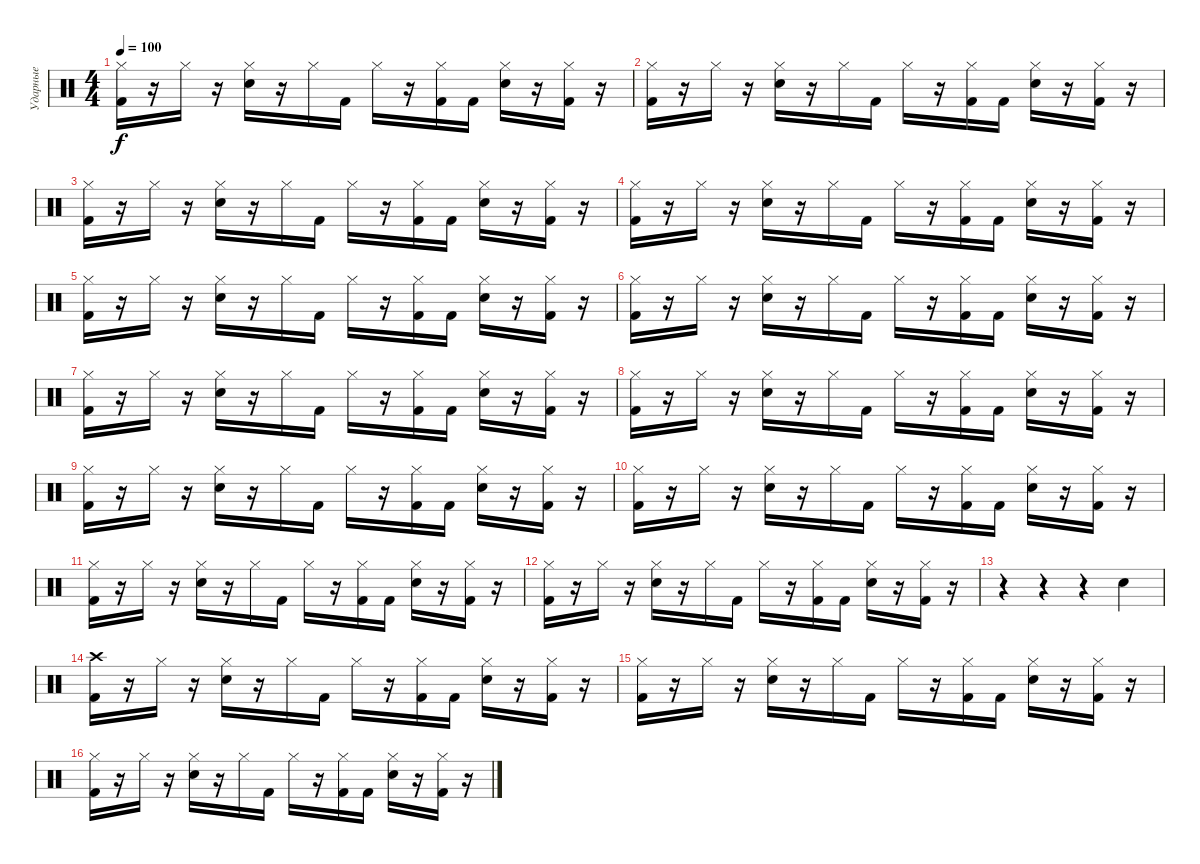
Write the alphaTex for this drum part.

\track ("Ударные" "Ударные") {instrument percussion}
\staff {score}
\articulation defaults
\ts (4 4)
\tempo 100
\clef neutral
\ks c
("Kick (hit) 2" "Hi-Hat (closed)").16{dy f} r.16 "Hi-Hat (closed)".16 r.16 ("Electric Snare (hit)" "Hi-Hat (closed)").16 r.16 "Hi-Hat (closed)".16 "Kick (hit) 2".16 "Hi-Hat (closed)".16 r.16 ("Kick (hit) 2" "Hi-Hat (closed)").16 "Kick (hit) 2".16 ("Electric Snare (hit)" "Hi-Hat (closed)").16 r.16 ("Kick (hit) 2" "Hi-Hat (closed)").16 r.16 |
("Kick (hit) 2" "Hi-Hat (closed)").16 r.16 "Hi-Hat (closed)".16 r.16 ("Electric Snare (hit)" "Hi-Hat (closed)").16 r.16 "Hi-Hat (closed)".16 "Kick (hit) 2".16 "Hi-Hat (closed)".16 r.16 ("Kick (hit) 2" "Hi-Hat (closed)").16 "Kick (hit) 2".16 ("Electric Snare (hit)" "Hi-Hat (closed)").16 r.16 ("Kick (hit) 2" "Hi-Hat (closed)").16 r.16 |
("Kick (hit) 2" "Hi-Hat (closed)").16 r.16 "Hi-Hat (closed)".16 r.16 ("Electric Snare (hit)" "Hi-Hat (closed)").16 r.16 "Hi-Hat (closed)".16 "Kick (hit) 2".16 "Hi-Hat (closed)".16 r.16 ("Kick (hit) 2" "Hi-Hat (closed)").16 "Kick (hit) 2".16 ("Electric Snare (hit)" "Hi-Hat (closed)").16 r.16 ("Kick (hit) 2" "Hi-Hat (closed)").16 r.16 |
("Kick (hit) 2" "Hi-Hat (closed)").16 r.16 "Hi-Hat (closed)".16 r.16 ("Electric Snare (hit)" "Hi-Hat (closed)").16 r.16 "Hi-Hat (closed)".16 "Kick (hit) 2".16 "Hi-Hat (closed)".16 r.16 ("Kick (hit) 2" "Hi-Hat (closed)").16 "Kick (hit) 2".16 ("Electric Snare (hit)" "Hi-Hat (closed)").16 r.16 ("Kick (hit) 2" "Hi-Hat (closed)").16 r.16 |
("Kick (hit) 2" "Hi-Hat (closed)").16 r.16 "Hi-Hat (closed)".16 r.16 ("Electric Snare (hit)" "Hi-Hat (closed)").16 r.16 "Hi-Hat (closed)".16 "Kick (hit) 2".16 "Hi-Hat (closed)".16 r.16 ("Kick (hit) 2" "Hi-Hat (closed)").16 "Kick (hit) 2".16 ("Electric Snare (hit)" "Hi-Hat (closed)").16 r.16 ("Kick (hit) 2" "Hi-Hat (closed)").16 r.16 |
("Kick (hit) 2" "Hi-Hat (closed)").16 r.16 "Hi-Hat (closed)".16 r.16 ("Electric Snare (hit)" "Hi-Hat (closed)").16 r.16 "Hi-Hat (closed)".16 "Kick (hit) 2".16 "Hi-Hat (closed)".16 r.16 ("Kick (hit) 2" "Hi-Hat (closed)").16 "Kick (hit) 2".16 ("Electric Snare (hit)" "Hi-Hat (closed)").16 r.16 ("Kick (hit) 2" "Hi-Hat (closed)").16 r.16 |
("Kick (hit) 2" "Hi-Hat (closed)").16 r.16 "Hi-Hat (closed)".16 r.16 ("Electric Snare (hit)" "Hi-Hat (closed)").16 r.16 "Hi-Hat (closed)".16 "Kick (hit) 2".16 "Hi-Hat (closed)".16 r.16 ("Kick (hit) 2" "Hi-Hat (closed)").16 "Kick (hit) 2".16 ("Electric Snare (hit)" "Hi-Hat (closed)").16 r.16 ("Kick (hit) 2" "Hi-Hat (closed)").16 r.16 |
("Kick (hit) 2" "Hi-Hat (closed)").16 r.16 "Hi-Hat (closed)".16 r.16 ("Electric Snare (hit)" "Hi-Hat (closed)").16 r.16 "Hi-Hat (closed)".16 "Kick (hit) 2".16 "Hi-Hat (closed)".16 r.16 ("Kick (hit) 2" "Hi-Hat (closed)").16 "Kick (hit) 2".16 ("Electric Snare (hit)" "Hi-Hat (closed)").16 r.16 ("Kick (hit) 2" "Hi-Hat (closed)").16 r.16 |
("Kick (hit) 2" "Hi-Hat (closed)").16 r.16 "Hi-Hat (closed)".16 r.16 ("Electric Snare (hit)" "Hi-Hat (closed)").16 r.16 "Hi-Hat (closed)".16 "Kick (hit) 2".16 "Hi-Hat (closed)".16 r.16 ("Kick (hit) 2" "Hi-Hat (closed)").16 "Kick (hit) 2".16 ("Electric Snare (hit)" "Hi-Hat (closed)").16 r.16 ("Kick (hit) 2" "Hi-Hat (closed)").16 r.16 |
("Kick (hit) 2" "Hi-Hat (closed)").16 r.16 "Hi-Hat (closed)".16 r.16 ("Electric Snare (hit)" "Hi-Hat (closed)").16 r.16 "Hi-Hat (closed)".16 "Kick (hit) 2".16 "Hi-Hat (closed)".16 r.16 ("Kick (hit) 2" "Hi-Hat (closed)").16 "Kick (hit) 2".16 ("Electric Snare (hit)" "Hi-Hat (closed)").16 r.16 ("Kick (hit) 2" "Hi-Hat (closed)").16 r.16 |
("Kick (hit) 2" "Hi-Hat (closed)").16 r.16 "Hi-Hat (closed)".16 r.16 ("Electric Snare (hit)" "Hi-Hat (closed)").16 r.16 "Hi-Hat (closed)".16 "Kick (hit) 2".16 "Hi-Hat (closed)".16 r.16 ("Kick (hit) 2" "Hi-Hat (closed)").16 "Kick (hit) 2".16 ("Electric Snare (hit)" "Hi-Hat (closed)").16 r.16 ("Kick (hit) 2" "Hi-Hat (closed)").16 r.16 |
("Kick (hit) 2" "Hi-Hat (closed)").16 r.16 "Hi-Hat (closed)".16 r.16 ("Electric Snare (hit)" "Hi-Hat (closed)").16 r.16 "Hi-Hat (closed)".16 "Kick (hit) 2".16 "Hi-Hat (closed)".16 r.16 ("Kick (hit) 2" "Hi-Hat (closed)").16 "Kick (hit) 2".16 ("Electric Snare (hit)" "Hi-Hat (closed)").16 r.16 ("Kick (hit) 2" "Hi-Hat (closed)").16 r.16 |
r.4 r.4 r.4 "Electric Snare (hit)".4 |
("Kick (hit) 2" "Crash high (hit)").16 r.16 "Hi-Hat (closed)".16 r.16 ("Electric Snare (hit)" "Hi-Hat (closed)").16 r.16 "Hi-Hat (closed)".16 "Kick (hit) 2".16 "Hi-Hat (closed)".16 r.16 ("Kick (hit) 2" "Hi-Hat (closed)").16 "Kick (hit) 2".16 ("Electric Snare (hit)" "Hi-Hat (closed)").16 r.16 ("Kick (hit) 2" "Hi-Hat (closed)").16 r.16 |
("Kick (hit) 2" "Hi-Hat (closed)").16 r.16 "Hi-Hat (closed)".16 r.16 ("Electric Snare (hit)" "Hi-Hat (closed)").16 r.16 "Hi-Hat (closed)".16 "Kick (hit) 2".16 "Hi-Hat (closed)".16 r.16 ("Kick (hit) 2" "Hi-Hat (closed)").16 "Kick (hit) 2".16 ("Electric Snare (hit)" "Hi-Hat (closed)").16 r.16 ("Kick (hit) 2" "Hi-Hat (closed)").16 r.16 |
("Kick (hit) 2" "Hi-Hat (closed)").16 r.16 "Hi-Hat (closed)".16 r.16 ("Electric Snare (hit)" "Hi-Hat (closed)").16 r.16 "Hi-Hat (closed)".16 "Kick (hit) 2".16 "Hi-Hat (closed)".16 r.16 ("Kick (hit) 2" "Hi-Hat (closed)").16 "Kick (hit) 2".16 ("Electric Snare (hit)" "Hi-Hat (closed)").16 r.16 ("Kick (hit) 2" "Hi-Hat (closed)").16 r.16
